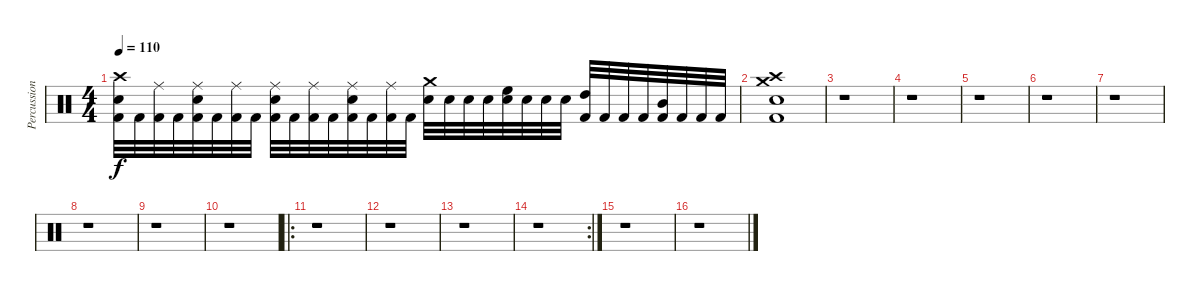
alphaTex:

\track ("Percussion" "Percussion") {instrument percussion}
\staff {score}
\articulation defaults
\ts (4 4)
\tempo 110
\clef neutral
\ks c
("Crash high (hit)" "Snare (hit) 2" "Kick (hit) 2").32{dy f} "Kick (hit) 2".32 ("Ride (middle)" "Kick (hit) 2").32 "Kick (hit) 2".32 ("Ride (middle)" "Snare (hit) 2" "Kick (hit) 2").32 "Kick (hit) 2".32 ("Ride (middle)" "Kick (hit) 2").32 "Kick (hit) 2".32 ("Ride (middle)" "Snare (hit) 2" "Kick (hit) 2").32 "Kick (hit) 2".32 ("Ride (middle)" "Kick (hit) 2").32 "Kick (hit) 2".32 ("Ride (middle)" "Snare (hit) 2" "Kick (hit) 2").32 "Kick (hit) 2".32 ("Ride (middle)" "Kick (hit) 2").32 "Kick (hit) 2".32 ("Crash medium (hit)" "Snare (hit) 2").32 "Snare (hit) 2".32 "Snare (hit) 2".32 "Snare (hit) 2".32 ("High Floor Tom (hit)" "Snare (hit) 2").32 "Snare (hit) 2".32 "Snare (hit) 2".32 "Snare (hit) 2".32 ("High Tom (hit)" "Kick (hit) 2").32 "Kick (hit) 2".32 "Kick (hit) 2".32 "Kick (hit) 2".32 ("Mid Tom (hit)" "Kick (hit) 2").32 "Kick (hit) 2".32 "Kick (hit) 2".32 "Kick (hit) 2".32 |
\section ("" "")
("Crash medium (hit)" "Crash high (hit)" "Kick (hit) 2" "Snare (hit) 2").1 |
r.1 |
r.1 |
r.1 |
r.1 |
r.1 |
r.1 |
r.1 |
r.1 |
\ro
r.1 |
r.1 |
r.1 |
\rc 2
r.1 |
r.1 |
r.1
